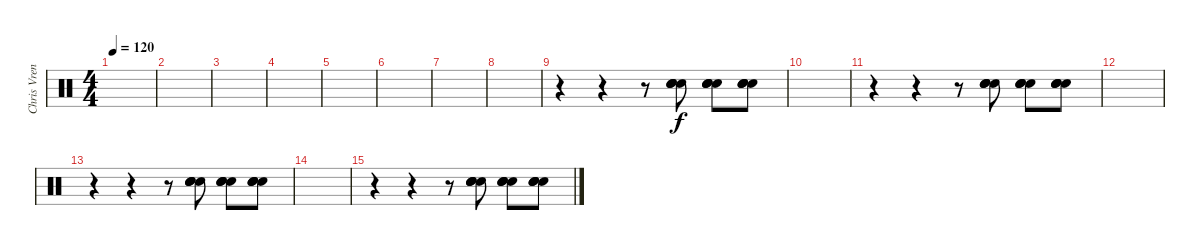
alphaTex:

\track ("Chris Vrenna" "Chris Vren") {instrument percussion}
\staff {score}
\articulation defaults
\ts (4 4)
\tempo 120
\clef neutral
\ks c
|
|
|
|
|
|
|
|
r.4 r.4 r.8 ("Hand Clap (hit)" "Hand Clap (hit)" "Hand Clap (hit)" "Hand Clap (hit)").8 ("Hand Clap (hit)" "Hand Clap (hit)" "Hand Clap (hit)" "Hand Clap (hit)").8 ("Hand Clap (hit)" "Hand Clap (hit)" "Hand Clap (hit)" "Hand Clap (hit)").8 |
|
r.4 r.4 r.8 ("Hand Clap (hit)" "Hand Clap (hit)" "Hand Clap (hit)" "Hand Clap (hit)").8 ("Hand Clap (hit)" "Hand Clap (hit)" "Hand Clap (hit)" "Hand Clap (hit)").8 ("Hand Clap (hit)" "Hand Clap (hit)" "Hand Clap (hit)" "Hand Clap (hit)").8 |
|
r.4 r.4 r.8 ("Hand Clap (hit)" "Hand Clap (hit)" "Hand Clap (hit)" "Hand Clap (hit)").8 ("Hand Clap (hit)" "Hand Clap (hit)" "Hand Clap (hit)" "Hand Clap (hit)").8 ("Hand Clap (hit)" "Hand Clap (hit)" "Hand Clap (hit)" "Hand Clap (hit)").8 |
|
r.4 r.4 r.8 ("Hand Clap (hit)" "Hand Clap (hit)" "Hand Clap (hit)" "Hand Clap (hit)").8 ("Hand Clap (hit)" "Hand Clap (hit)" "Hand Clap (hit)" "Hand Clap (hit)").8 ("Hand Clap (hit)" "Hand Clap (hit)" "Hand Clap (hit)" "Hand Clap (hit)").8
